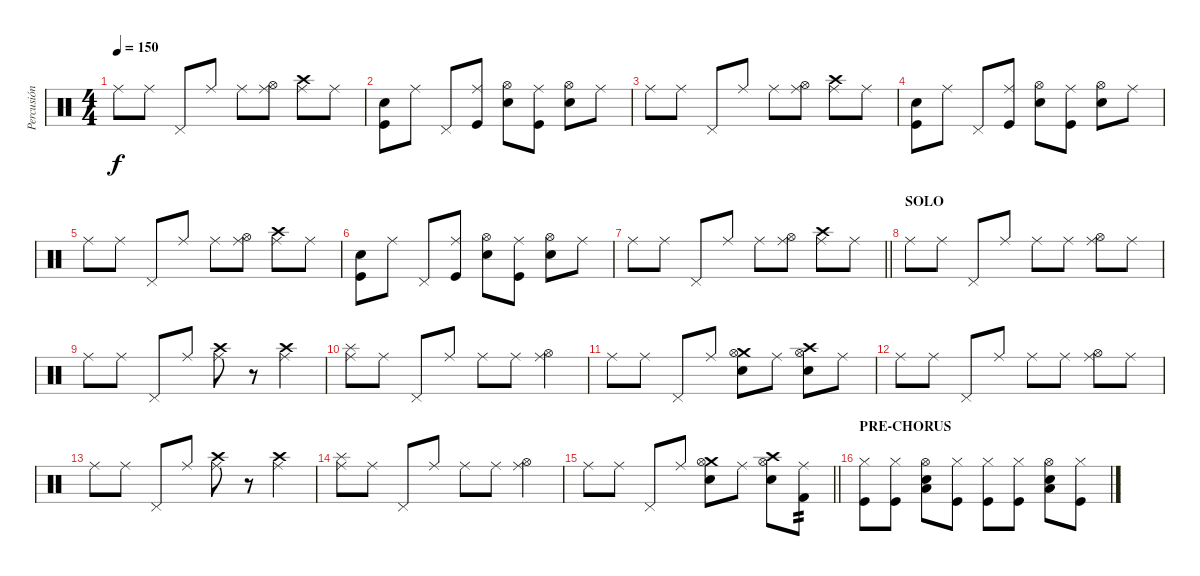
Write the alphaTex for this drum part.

\track ("Percusión" "Percusión") {instrument percussion}
\staff {score}
\articulation defaults
\ts (4 4)
\tempo 150
\clef neutral
\ks c "Ride (middle)".8{dy f} "Ride (middle)".8 "Pedal Hi-Hat (hit)".8 "Ride (middle)".8 "Ride (middle)".8
("Hi-Hat (open)" "Ride (middle)").8 ("Crash high (hit)" "Ride (middle)").8 "Ride (middle)".8 |
("Kick (hit)" "Snare (hit) 2").8 "Ride (middle)".8 "Pedal Hi-Hat (hit)".8 ("Kick (hit)" "Ride (middle)").8 ("Snare (hit) 2" "Hi-Hat (open)").8 ("Kick (hit)" "Ride (middle)").8 ("Snare (hit) 2" "Hi-Hat (open)").8 "Ride (middle)".8 |
"Ride (middle)".8 "Ride (middle)".8 "Pedal Hi-Hat (hit)".8 "Ride (middle)".8 "Ride (middle)".8 ("Hi-Hat (open)" "Ride (middle)").8 ("Crash high (hit)" "Ride (middle)").8 "Ride (middle)".8 |
("Kick (hit)" "Snare (hit) 2").8 "Ride (middle)".8 "Pedal Hi-Hat (hit)".8 ("Kick (hit)" "Ride (middle)").8 ("Snare (hit) 2" "Hi-Hat (open)").8 ("Kick (hit)" "Ride (middle)").8 ("Snare (hit) 2" "Hi-Hat (open)").8 "Ride (middle)".8 |
"Ride (middle)".8 "Ride (middle)".8 "Pedal Hi-Hat (hit)".8 "Ride (middle)".8 "Ride (middle)".8 ("Hi-Hat (open)" "Ride (middle)").8 ("Crash high (hit)" "Ride (middle)").8 "Ride (middle)".8 |
("Kick (hit)" "Snare (hit) 2").8 "Ride (middle)".8 "Pedal Hi-Hat (hit)".8 ("Kick (hit)" "Ride (middle)").8 ("Snare (hit) 2" "Hi-Hat (open)").8 ("Kick (hit)" "Ride (middle)").8 ("Snare (hit) 2" "Hi-Hat (open)").8 "Ride (middle)".8 |
\barLineRight lightlight "Ride (middle)".8 "Ride (middle)".8 "Pedal Hi-Hat (hit)".8 "Ride (middle)".8 "Ride (middle)".8
("Hi-Hat (open)" "Ride (middle)").8 ("Crash high (hit)" "Ride (middle)").8 "Ride (middle)".8 |
\section ("" "SOLO")
"Ride (middle)".8 "Ride (middle)".8 "Pedal Hi-Hat (hit)".8 "Ride (middle)".8 "Ride (middle)".8 "Ride (middle)".8 ("Hi-Hat (open)" "Ride (middle)").8 "Ride (middle)".8 |
"Ride (middle)".8 "Ride (middle)".8 "Pedal Hi-Hat (hit)".8 "Ride (middle)".8 ("Crash high (hit)" "Ride (middle)").8 r.8 ("Crash high (hit)" "Ride (middle)").4 |
("Splash (hit)" "Ride (middle)").8 "Ride (middle)".8 "Pedal Hi-Hat (hit)".8 "Ride (middle)".8 "Ride (middle)".8 "Ride (middle)".8 ("Hi-Hat (open)" "Ride (middle)").4 |
"Ride (middle)".8 "Ride (middle)".8 "Pedal Hi-Hat (hit)".8 "Ride (middle)".8 ("Snare (hit) 2" "Crash medium (hit)" "Hi-Hat (open)").8 "Ride (middle)".8 ("Snare (hit) 2" "Crash high (hit)" "Hi-Hat (open)").8 "Ride (middle)".8 |
"Ride (middle)".8 "Ride (middle)".8 "Pedal Hi-Hat (hit)".8 "Ride (middle)".8 "Ride (middle)".8 "Ride (middle)".8 ("Hi-Hat (open)" "Ride (middle)").8 "Ride (middle)".8 |
"Ride (middle)".8 "Ride (middle)".8 "Pedal Hi-Hat (hit)".8 "Ride (middle)".8 ("Crash high (hit)" "Ride (middle)").8 r.8 ("Crash high (hit)" "Ride (middle)").4 |
("Splash (hit)" "Ride (middle)").8 "Ride (middle)".8 "Pedal Hi-Hat (hit)".8 "Ride (middle)".8 "Ride (middle)".8 "Ride (middle)".8 ("Hi-Hat (open)" "Ride (middle)").4 |
\barLineRight lightlight "Ride (middle)".8 "Ride (middle)".8 "Pedal Hi-Hat (hit)".8 "Ride (middle)".8
("Snare (hit) 2" "Crash medium (hit)" "Hi-Hat (open)").8 "Ride (middle)".8 ("Snare (hit) 2" "Crash high (hit)" "Hi-Hat (open)").8 ("Kick (hit) 2" "Ride (middle)").8{tp 2} |
\section ("" "PRE-CHORUS")
("Kick (hit)" "Hi-Hat (closed)").8 ("Kick (hit)" "Hi-Hat (closed)").8 ("Low Floor Tom (hit)" "Snare (hit) 2" "Hi-Hat (open)").8 ("Kick (hit)" "Hi-Hat (closed)").8 ("Kick (hit)" "Hi-Hat (closed)").8 ("Kick (hit)" "Hi-Hat (closed)").8 ("Low Floor Tom (hit)" "Snare (hit) 2" "Hi-Hat (open)").8 ("Kick (hit)" "Hi-Hat (closed)").8
